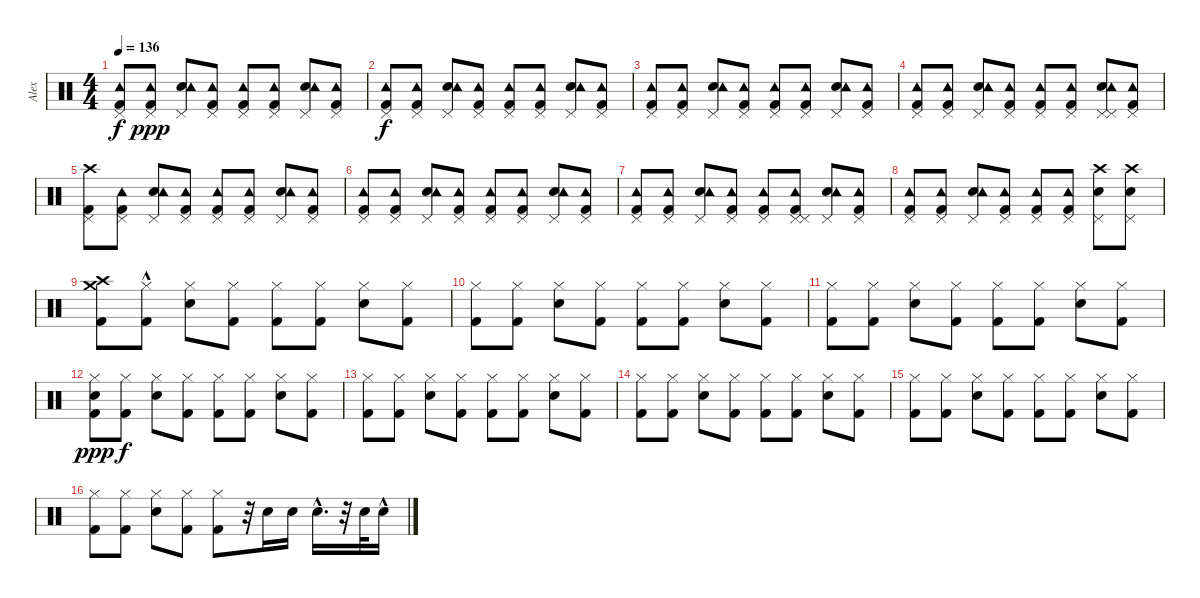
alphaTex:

\track ("Alex" "Alex") {instrument percussion}
\staff {score}
\articulation defaults
\ts (4 4)
\tempo 136
\clef neutral
\ks c
("Pedal Hi-Hat (hit)" "Kick (hit) 2" "Tambourine (hit)").8{dy f} ("Kick (hit) 2" "Pedal Hi-Hat (hit)" "Tambourine (hit)").8{dy ppp} ("Pedal Hi-Hat (hit)" "Snare (hit) 2" "Tambourine (hit)").8 ("Pedal Hi-Hat (hit)" "Kick (hit) 2" "Tambourine (hit)").8 ("Pedal Hi-Hat (hit)" "Kick (hit) 2" "Tambourine (hit)").8 ("Pedal Hi-Hat (hit)" "Kick (hit) 2" "Tambourine (hit)").8 ("Pedal Hi-Hat (hit)" "Snare (hit) 2" "Tambourine (hit)").8 ("Kick (hit) 2" "Pedal Hi-Hat (hit)" "Tambourine (hit)").8 |
("Kick (hit) 2" "Pedal Hi-Hat (hit)" "Tambourine (hit)").8{dy f} ("Pedal Hi-Hat (hit)" "Kick (hit) 2" "Tambourine (hit)").8 ("Snare (hit) 2" "Pedal Hi-Hat (hit)" "Tambourine (hit)").8 ("Kick (hit) 2" "Pedal Hi-Hat (hit)" "Tambourine (hit)").8 ("Kick (hit) 2" "Pedal Hi-Hat (hit)" "Tambourine (hit)").8 ("Kick (hit) 2" "Pedal Hi-Hat (hit)" "Tambourine (hit)").8 ("Snare (hit) 2" "Pedal Hi-Hat (hit)" "Tambourine (hit)").8 ("Kick (hit) 2" "Pedal Hi-Hat (hit)" "Tambourine (hit)").8 |
("Kick (hit) 2" "Pedal Hi-Hat (hit)" "Tambourine (hit)").8 ("Kick (hit) 2" "Pedal Hi-Hat (hit)" "Tambourine (hit)").8 ("Snare (hit) 2" "Pedal Hi-Hat (hit)" "Tambourine (hit)").8 ("Kick (hit) 2" "Pedal Hi-Hat (hit)" "Tambourine (hit)").8 ("Kick (hit) 2" "Pedal Hi-Hat (hit)" "Tambourine (hit)").8 ("Kick (hit) 2" "Pedal Hi-Hat (hit)" "Tambourine (hit)").8 ("Snare (hit) 2" "Pedal Hi-Hat (hit)" "Tambourine (hit)").8 ("Kick (hit) 2" "Pedal Hi-Hat (hit)" "Tambourine (hit)").8 |
("Kick (hit) 2" "Pedal Hi-Hat (hit)" "Tambourine (hit)").8 ("Kick (hit) 2" "Pedal Hi-Hat (hit)" "Tambourine (hit)").8 ("Pedal Hi-Hat (hit)" "Snare (hit) 2" "Tambourine (hit)").8 ("Kick (hit) 2" "Pedal Hi-Hat (hit)" "Tambourine (hit)").8 ("Pedal Hi-Hat (hit)" "Kick (hit) 2" "Tambourine (hit)").8 ("Kick (hit) 2" "Pedal Hi-Hat (hit)" "Tambourine (hit)").8 ("Pedal Hi-Hat (hit)" "Snare (hit) 2" "Pedal Hi-Hat (hit)" "Tambourine (hit)").8 ("Kick (hit) 2" "Pedal Hi-Hat (hit)" "Tambourine (hit)").8 |
("Kick (hit) 2" "Crash high (hit)" "Pedal Hi-Hat (hit)").8 ("Kick (hit) 2" "Pedal Hi-Hat (hit)" "Tambourine (hit)").8 ("Snare (hit) 2" "Pedal Hi-Hat (hit)" "Tambourine (hit)").8 ("Kick (hit) 2" "Pedal Hi-Hat (hit)" "Tambourine (hit)").8 ("Kick (hit) 2" "Pedal Hi-Hat (hit)" "Tambourine (hit)").8 ("Pedal Hi-Hat (hit)" "Kick (hit) 2" "Tambourine (hit)").8 ("Pedal Hi-Hat (hit)" "Snare (hit) 2" "Tambourine (hit)").8 ("Kick (hit) 2" "Pedal Hi-Hat (hit)" "Tambourine (hit)").8 |
("Kick (hit) 2" "Pedal Hi-Hat (hit)" "Tambourine (hit)").8 ("Pedal Hi-Hat (hit)" "Kick (hit) 2" "Tambourine (hit)").8 ("Pedal Hi-Hat (hit)" "Snare (hit) 2" "Tambourine (hit)").8 ("Kick (hit) 2" "Pedal Hi-Hat (hit)" "Tambourine (hit)").8 ("Kick (hit) 2" "Pedal Hi-Hat (hit)" "Tambourine (hit)").8 ("Pedal Hi-Hat (hit)" "Kick (hit) 2" "Tambourine (hit)").8 ("Pedal Hi-Hat (hit)" "Snare (hit) 2" "Tambourine (hit)").8 ("Kick (hit) 2" "Pedal Hi-Hat (hit)" "Tambourine (hit)").8 |
("Kick (hit) 2" "Pedal Hi-Hat (hit)" "Tambourine (hit)").8 ("Kick (hit) 2" "Pedal Hi-Hat (hit)" "Tambourine (hit)").8 ("Pedal Hi-Hat (hit)" "Snare (hit) 2" "Tambourine (hit)").8 ("Kick (hit) 2" "Pedal Hi-Hat (hit)" "Tambourine (hit)").8 ("Kick (hit) 2" "Pedal Hi-Hat (hit)" "Tambourine (hit)").8 ("Pedal Hi-Hat (hit)" "Kick (hit) 2" "Pedal Hi-Hat (hit)" "Tambourine (hit)").8 ("Snare (hit) 2" "Pedal Hi-Hat (hit)" "Tambourine (hit)").8 ("Kick (hit) 2" "Pedal Hi-Hat (hit)" "Tambourine (hit)").8 |
("Kick (hit) 2" "Pedal Hi-Hat (hit)" "Tambourine (hit)").8 ("Kick (hit) 2" "Pedal Hi-Hat (hit)" "Tambourine (hit)").8 ("Snare (hit) 2" "Pedal Hi-Hat (hit)" "Tambourine (hit)").8 ("Kick (hit) 2" "Pedal Hi-Hat (hit)" "Tambourine (hit)").8 ("Kick (hit) 2" "Pedal Hi-Hat (hit)" "Tambourine (hit)").8 ("Kick (hit) 2" "Pedal Hi-Hat (hit)" "Tambourine (hit)").8 ("Snare (hit) 2" "Crash high (hit)" "Pedal Hi-Hat (hit)").8 ("Pedal Hi-Hat (hit)" "Snare (hit) 2" "Crash high (hit)").8 |
("Crash medium (hit)" "Kick (hit) 2" "Crash high (hit)").8 ("Kick (hit) 2" "Hi-Hat (closed)"{hac}).8 ("Snare (hit) 2" "Hi-Hat (closed)").8 ("Kick (hit) 2" "Hi-Hat (closed)").8 ("Hi-Hat (closed)" "Kick (hit) 2").8 ("Hi-Hat (closed)" "Kick (hit) 2").8 ("Snare (hit) 2" "Hi-Hat (closed)").8 ("Hi-Hat (closed)" "Kick (hit) 2").8 |
("Hi-Hat (closed)" "Kick (hit) 2").8 ("Hi-Hat (closed)" "Kick (hit) 2").8 ("Snare (hit) 2" "Hi-Hat (closed)").8 ("Kick (hit) 2" "Hi-Hat (closed)").8 ("Kick (hit) 2" "Hi-Hat (closed)").8 ("Hi-Hat (closed)" "Kick (hit) 2").8 ("Snare (hit) 2" "Hi-Hat (closed)").8 ("Hi-Hat (closed)" "Kick (hit) 2").8 |
("Hi-Hat (closed)" "Kick (hit) 2").8 ("Hi-Hat (closed)" "Kick (hit) 2").8 ("Snare (hit) 2" "Hi-Hat (closed)").8 ("Kick (hit) 2" "Hi-Hat (closed)").8 ("Kick (hit) 2" "Hi-Hat (closed)").8 ("Kick (hit) 2" "Hi-Hat (closed)").8 ("Hi-Hat (closed)" "Snare (hit) 2").8 ("Kick (hit) 2" "Hi-Hat (closed)").8 |
("Hi-Hat (closed)" "Kick (hit) 2" "Snare (hit) 2").8{dy ppp} ("Hi-Hat (closed)" "Kick (hit) 2").8{dy f} ("Snare (hit) 2" "Hi-Hat (closed)").8 ("Kick (hit) 2" "Hi-Hat (closed)").8 ("Kick (hit) 2" "Hi-Hat (closed)").8 ("Kick (hit) 2" "Hi-Hat (closed)").8 ("Hi-Hat (closed)" "Snare (hit) 2").8 ("Hi-Hat (closed)" "Kick (hit) 2").8 |
("Hi-Hat (closed)" "Kick (hit) 2").8 ("Kick (hit) 2" "Hi-Hat (closed)").8 ("Hi-Hat (closed)" "Snare (hit) 2").8 ("Hi-Hat (closed)" "Kick (hit) 2").8 ("Kick (hit) 2" "Hi-Hat (closed)").8 ("Hi-Hat (closed)" "Kick (hit) 2").8 ("Snare (hit) 2" "Hi-Hat (closed)").8 ("Kick (hit) 2" "Hi-Hat (closed)").8 |
("Kick (hit) 2" "Hi-Hat (closed)").8 ("Hi-Hat (closed)" "Kick (hit) 2").8 ("Hi-Hat (closed)" "Snare (hit) 2").8 ("Hi-Hat (closed)" "Kick (hit) 2").8 ("Hi-Hat (closed)" "Kick (hit) 2").8 ("Hi-Hat (closed)" "Kick (hit) 2").8 ("Hi-Hat (closed)" "Snare (hit) 2").8 ("Kick (hit) 2" "Hi-Hat (closed)").8 |
("Kick (hit) 2" "Hi-Hat (closed)").8 ("Hi-Hat (closed)" "Kick (hit) 2").8 ("Hi-Hat (closed)" "Snare (hit) 2").8 ("Hi-Hat (closed)" "Kick (hit) 2").8 ("Hi-Hat (closed)" "Kick (hit) 2").8 ("Kick (hit) 2" "Hi-Hat (closed)").8 ("Hi-Hat (closed)" "Snare (hit) 2").8 ("Hi-Hat (closed)" "Kick (hit) 2").8 |
("Kick (hit) 2" "Hi-Hat (closed)").8 ("Kick (hit) 2" "Hi-Hat (closed)").8 ("Hi-Hat (closed)" "Snare (hit) 2").8 ("Hi-Hat (closed)" "Kick (hit) 2").8 ("Hi-Hat (closed)" "Kick (hit) 2").8 r.32 "Snare (hit) 2".16 "Snare (hit) 2".16 "Snare (hit) 2"{hac}.16{d} r.32 "Snare (hit) 2".32 "Snare (hit) 2"{hac}.16
